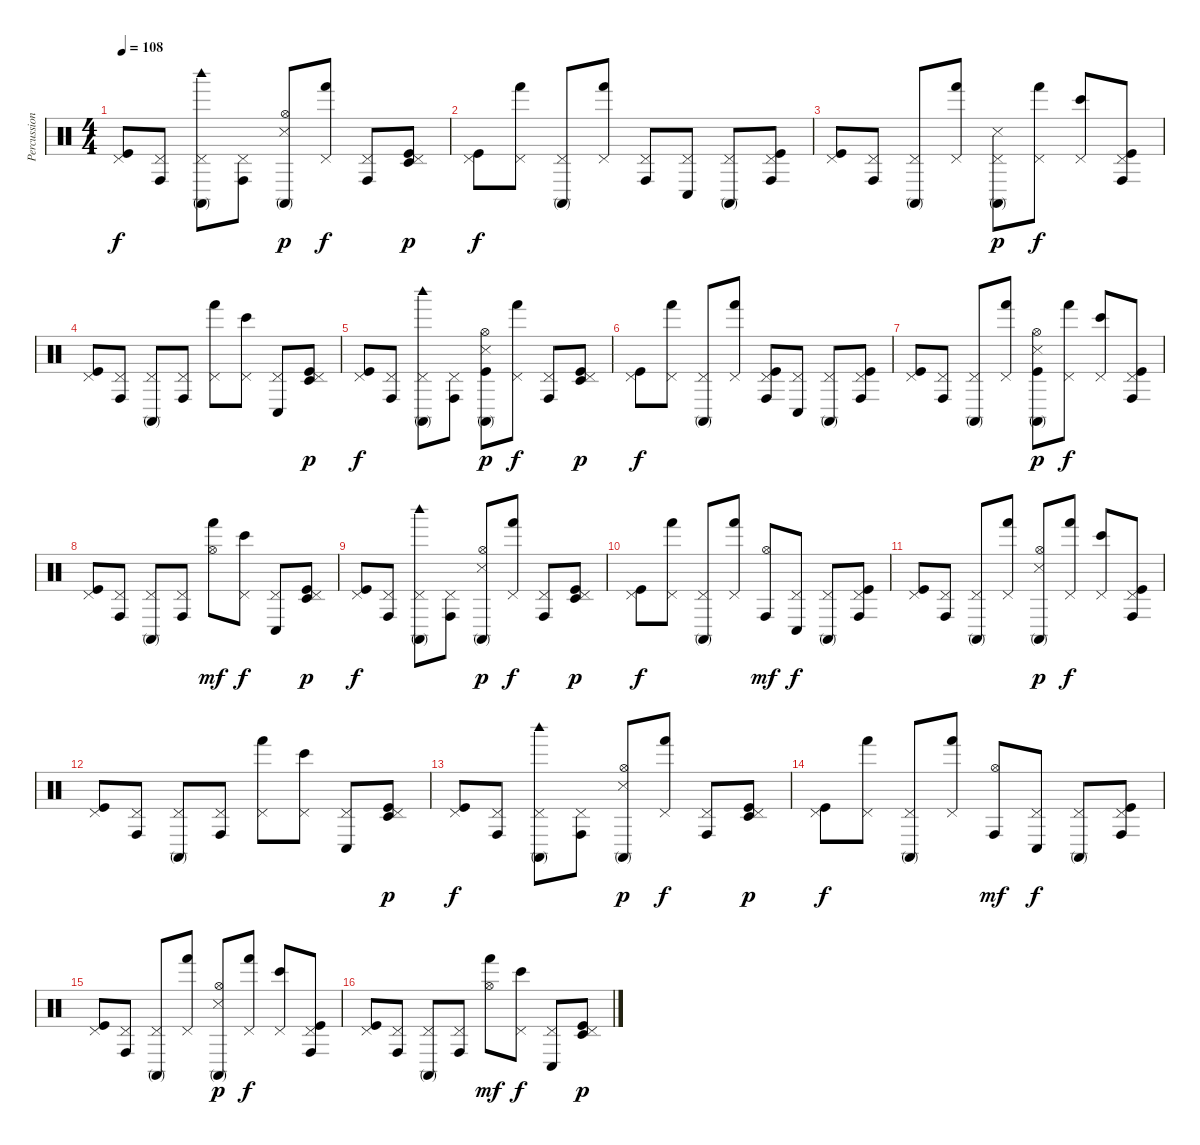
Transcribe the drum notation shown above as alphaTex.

\track ("Percussions" "Percussion") {instrument percussion}
\staff {score}
\articulation defaults
\ts (4 4)
\tempo 108
\clef neutral
\ks c
("Pedal Hi-Hat (hit)" "Kick (hit)").8{dy f} ("Pedal Hi-Hat (hit)" "Conga high (hit)").8 ("Pedal Hi-Hat (hit)" "Conga high (mute)" "Woodblock high (hit)").8 ("Pedal Hi-Hat (hit)" "Conga high (hit)").8 ("Hi-Hat (open)" "Snare (side stick) 3" "Conga high (mute)").8{dy p} ("Pedal Hi-Hat (hit)" "Hand (hit)").8{dy f} ("Pedal Hi-Hat (hit)" "Conga high (hit)").8 ("Pedal Hi-Hat (hit)" "Kick (hit)" "Timbale low (hit)").8{dy p} |
("Pedal Hi-Hat (hit)" "Kick (hit)").8{dy f} ("Pedal Hi-Hat (hit)" "Hand (hit)").8 ("Pedal Hi-Hat (hit)" "Conga high (mute)").8 ("Pedal Hi-Hat (hit)" "Hand (hit)").8 ("Pedal Hi-Hat (hit)" "Conga high (hit)").8 ("Pedal Hi-Hat (hit)" "Conga low (hit)").8 ("Pedal Hi-Hat (hit)" "Conga high (mute)").8 ("Pedal Hi-Hat (hit)" "Kick (hit)" "Conga high (hit)").8 |
("Pedal Hi-Hat (hit)" "Kick (hit)").8 ("Pedal Hi-Hat (hit)" "Conga high (hit)").8 ("Pedal Hi-Hat (hit)" "Conga high (mute)").8 ("Pedal Hi-Hat (hit)" "Hand (hit)").8 ("Pedal Hi-Hat (hit)" "Conga high (mute)" "Snare (side stick) 3").8{dy p} ("Pedal Hi-Hat (hit)" "Hand (hit)").8{dy f} ("Pedal Hi-Hat (hit)" "Bongo High (hit)").8 ("Pedal Hi-Hat (hit)" "Conga high (hit)" "Kick (hit)").8 |
("Pedal Hi-Hat (hit)" "Kick (hit)").8 ("Pedal Hi-Hat (hit)" "Conga high (hit)").8 ("Pedal Hi-Hat (hit)" "Conga high (mute)").8 ("Pedal Hi-Hat (hit)" "Conga high (hit)").8 ("Pedal Hi-Hat (hit)" "Hand (hit)").8 ("Pedal Hi-Hat (hit)" "Bongo High (hit)").8 ("Pedal Hi-Hat (hit)" "Conga low (hit)").8 ("Pedal Hi-Hat (hit)" "Kick (hit)" "Timbale low (hit)").8{dy p} |
("Pedal Hi-Hat (hit)" "Kick (hit)").8{dy f} ("Pedal Hi-Hat (hit)" "Conga high (hit)").8 ("Pedal Hi-Hat (hit)" "Conga high (mute)" "Woodblock high (hit)").8 ("Pedal Hi-Hat (hit)" "Conga high (hit)").8 ("Hi-Hat (open)" "Snare (side stick) 3" "Conga high (mute)" "Kick (hit)").8{dy p} ("Pedal Hi-Hat (hit)" "Hand (hit)").8{dy f} ("Pedal Hi-Hat (hit)" "Conga high (hit)").8 ("Pedal Hi-Hat (hit)" "Kick (hit)" "Timbale low (hit)").8{dy p} |
("Pedal Hi-Hat (hit)" "Kick (hit)").8{dy f} ("Pedal Hi-Hat (hit)" "Hand (hit)").8 ("Pedal Hi-Hat (hit)" "Conga high (mute)").8 ("Pedal Hi-Hat (hit)" "Hand (hit)").8 ("Pedal Hi-Hat (hit)" "Conga high (hit)" "Kick (hit)").8 ("Pedal Hi-Hat (hit)" "Conga low (hit)").8 ("Pedal Hi-Hat (hit)" "Conga high (mute)").8 ("Pedal Hi-Hat (hit)" "Kick (hit)" "Conga high (hit)").8 |
("Pedal Hi-Hat (hit)" "Kick (hit)").8 ("Pedal Hi-Hat (hit)" "Conga high (hit)").8 ("Pedal Hi-Hat (hit)" "Conga high (mute)").8 ("Pedal Hi-Hat (hit)" "Hand (hit)").8 ("Hi-Hat (open)" "Conga high (mute)" "Snare (side stick) 3" "Kick (hit)").8{dy p} ("Pedal Hi-Hat (hit)" "Hand (hit)").8{dy f} ("Pedal Hi-Hat (hit)" "Bongo High (hit)").8 ("Pedal Hi-Hat (hit)" "Conga high (hit)" "Kick (hit)").8 |
("Pedal Hi-Hat (hit)" "Kick (hit)").8 ("Pedal Hi-Hat (hit)" "Conga high (hit)").8 ("Pedal Hi-Hat (hit)" "Conga high (mute)").8 ("Pedal Hi-Hat (hit)" "Conga high (hit)").8 ("Hi-Hat (open)" "Hand (hit)").8{dy mf} ("Pedal Hi-Hat (hit)" "Bongo High (hit)").8{dy f} ("Pedal Hi-Hat (hit)" "Conga low (hit)").8 ("Pedal Hi-Hat (hit)" "Kick (hit)" "Timbale low (hit)").8{dy p} |
("Pedal Hi-Hat (hit)" "Kick (hit)").8{dy f} ("Pedal Hi-Hat (hit)" "Conga high (hit)").8 ("Pedal Hi-Hat (hit)" "Conga high (mute)" "Woodblock high (hit)").8 ("Pedal Hi-Hat (hit)" "Conga high (hit)").8 ("Hi-Hat (open)" "Snare (side stick) 3" "Conga high (mute)").8{dy p} ("Pedal Hi-Hat (hit)" "Hand (hit)").8{dy f} ("Pedal Hi-Hat (hit)" "Conga high (hit)").8 ("Pedal Hi-Hat (hit)" "Kick (hit)" "Timbale low (hit)").8{dy p} |
("Pedal Hi-Hat (hit)" "Kick (hit)").8{dy f} ("Pedal Hi-Hat (hit)" "Hand (hit)").8 ("Pedal Hi-Hat (hit)" "Conga high (mute)").8 ("Pedal Hi-Hat (hit)" "Hand (hit)").8 ("Hi-Hat (open)" "Conga high (hit)").8{dy mf} ("Pedal Hi-Hat (hit)" "Conga low (hit)").8{dy f} ("Pedal Hi-Hat (hit)" "Conga high (mute)").8 ("Pedal Hi-Hat (hit)" "Kick (hit)" "Conga high (hit)").8 |
("Pedal Hi-Hat (hit)" "Kick (hit)").8 ("Pedal Hi-Hat (hit)" "Conga high (hit)").8 ("Pedal Hi-Hat (hit)" "Conga high (mute)").8 ("Pedal Hi-Hat (hit)" "Hand (hit)").8 ("Hi-Hat (open)" "Conga high (mute)" "Snare (side stick) 3").8{dy p} ("Pedal Hi-Hat (hit)" "Hand (hit)").8{dy f} ("Pedal Hi-Hat (hit)" "Bongo High (hit)").8 ("Pedal Hi-Hat (hit)" "Conga high (hit)" "Kick (hit)").8 |
("Pedal Hi-Hat (hit)" "Kick (hit)").8 ("Pedal Hi-Hat (hit)" "Conga high (hit)").8 ("Pedal Hi-Hat (hit)" "Conga high (mute)").8 ("Pedal Hi-Hat (hit)" "Conga high (hit)").8 ("Pedal Hi-Hat (hit)" "Hand (hit)").8 ("Pedal Hi-Hat (hit)" "Bongo High (hit)").8 ("Pedal Hi-Hat (hit)" "Conga low (hit)").8 ("Pedal Hi-Hat (hit)" "Kick (hit)" "Timbale low (hit)").8{dy p} |
("Pedal Hi-Hat (hit)" "Kick (hit)").8{dy f} ("Pedal Hi-Hat (hit)" "Conga high (hit)").8 ("Pedal Hi-Hat (hit)" "Conga high (mute)" "Woodblock high (hit)").8 ("Pedal Hi-Hat (hit)" "Conga high (hit)").8 ("Hi-Hat (open)" "Snare (side stick) 3" "Conga high (mute)").8{dy p} ("Pedal Hi-Hat (hit)" "Hand (hit)").8{dy f} ("Pedal Hi-Hat (hit)" "Conga high (hit)").8 ("Pedal Hi-Hat (hit)" "Kick (hit)" "Timbale low (hit)").8{dy p} |
("Pedal Hi-Hat (hit)" "Kick (hit)").8{dy f} ("Pedal Hi-Hat (hit)" "Hand (hit)").8 ("Pedal Hi-Hat (hit)" "Conga high (mute)").8 ("Pedal Hi-Hat (hit)" "Hand (hit)").8 ("Hi-Hat (open)" "Conga high (hit)").8{dy mf} ("Pedal Hi-Hat (hit)" "Conga low (hit)").8{dy f} ("Pedal Hi-Hat (hit)" "Conga high (mute)").8 ("Pedal Hi-Hat (hit)" "Kick (hit)" "Conga high (hit)").8 |
("Pedal Hi-Hat (hit)" "Kick (hit)").8 ("Pedal Hi-Hat (hit)" "Conga high (hit)").8 ("Pedal Hi-Hat (hit)" "Conga high (mute)").8 ("Pedal Hi-Hat (hit)" "Hand (hit)").8 ("Hi-Hat (open)" "Conga high (mute)" "Snare (side stick) 3").8{dy p} ("Pedal Hi-Hat (hit)" "Hand (hit)").8{dy f} ("Pedal Hi-Hat (hit)" "Bongo High (hit)").8 ("Pedal Hi-Hat (hit)" "Conga high (hit)" "Kick (hit)").8 |
("Pedal Hi-Hat (hit)" "Kick (hit)").8 ("Pedal Hi-Hat (hit)" "Conga high (hit)").8 ("Pedal Hi-Hat (hit)" "Conga high (mute)").8 ("Pedal Hi-Hat (hit)" "Conga high (hit)").8 ("Hi-Hat (open)" "Hand (hit)").8{dy mf} ("Pedal Hi-Hat (hit)" "Bongo High (hit)").8{dy f} ("Pedal Hi-Hat (hit)" "Conga low (hit)").8 ("Pedal Hi-Hat (hit)" "Kick (hit)" "Timbale low (hit)").8{dy p}
